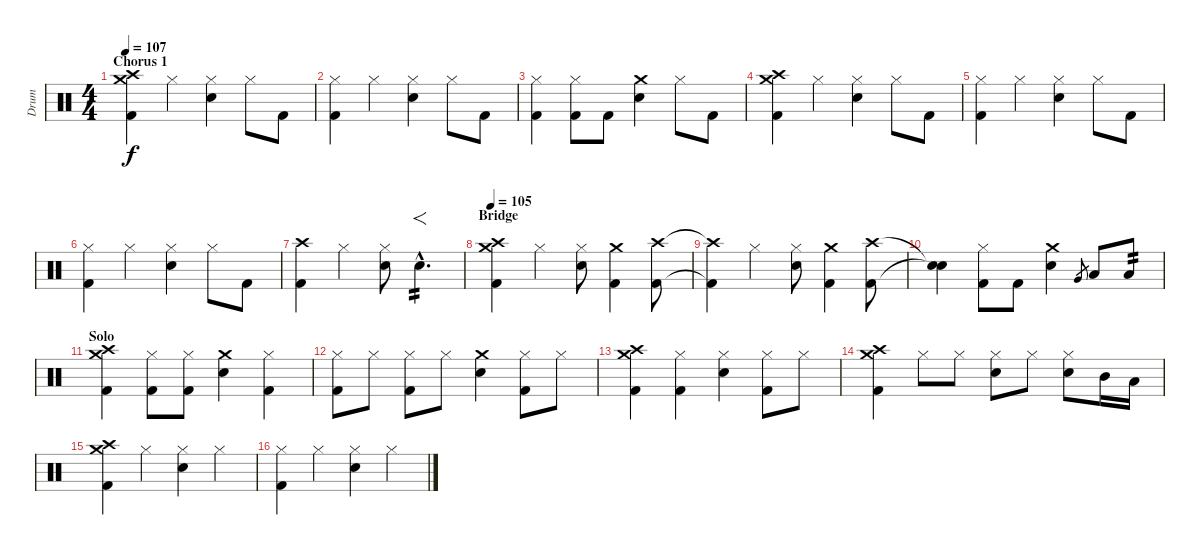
\track ("Drum" "Drum") {instrument percussion}
\staff {score}
\articulation defaults
\ts (4 4)
\section ("" "Chorus 1")
\tempo 107
\clef neutral
\ks c
("Kick (hit) 2" "Crash medium (hit)" "Crash high (hit)").4{dy f} "Hi-Hat (closed)".4 ("Hi-Hat (closed)" "Snare (hit) 2").4 "Hi-Hat (closed)".8 "Kick (hit) 2".8 |
("Hi-Hat (closed)" "Kick (hit) 2").4 "Hi-Hat (closed)".4 ("Hi-Hat (closed)" "Snare (hit) 2").4 "Hi-Hat (closed)".8 "Kick (hit) 2".8 |
("Hi-Hat (closed)" "Kick (hit) 2").4 ("Hi-Hat (closed)" "Kick (hit) 2").8 "Kick (hit) 2".8 ("Snare (hit) 2" "Crash medium (hit)").4 "Hi-Hat (closed)".8 "Kick (hit) 2".8 |
("Kick (hit) 2" "Crash medium (hit)" "Crash high (hit)").4 "Hi-Hat (closed)".4 ("Hi-Hat (closed)" "Snare (hit) 2").4 "Hi-Hat (closed)".8 "Kick (hit) 2".8 |
("Hi-Hat (closed)" "Kick (hit) 2").4 "Hi-Hat (closed)".4 ("Hi-Hat (closed)" "Snare (hit) 2").4 "Hi-Hat (closed)".8 "Kick (hit) 2".8 |
("Hi-Hat (closed)" "Kick (hit) 2").4 "Hi-Hat (closed)".4 ("Hi-Hat (closed)" "Snare (hit) 2").4 "Hi-Hat (closed)".8 "Kick (hit) 2".8 |
("Kick (hit) 2" "Crash high (hit)").4 "Hi-Hat (closed)".4 ("Hi-Hat (closed)" "Snare (hit) 2").8 "Snare (hit) 2"{hac}.4{f d tp 2} |
\section ("" "Bridge")
\tempo 105
("Kick (hit) 2" "Crash medium (hit)" "Crash high (hit)").4 "Hi-Hat (closed)".4 ("Hi-Hat (closed)" "Snare (hit) 2").8 ("Kick (hit) 2" "Crash medium (hit)").4 ("Kick (hit) 2" "Crash high (hit)").8 |
("Kick (hit) 2"{t} "Crash high (hit)"{t}).4 "Hi-Hat (closed)".4 ("Hi-Hat (closed)" "Snare (hit) 2").8 ("Kick (hit) 2" "Crash medium (hit)").4 ("Kick (hit) 2" "Crash high (hit)").8 |
("Snare (hit)"{t} "Snare (hit)"{t}).4 ("Hi-Hat (closed)" "Kick (hit) 2").8 "Kick (hit) 2".8 ("Snare (hit) 2" "Crash medium (hit)").4 "Very Low Tom (hit)".8{gr} "Low Tom (hit)".8 "Low Tom (hit)".8{tp 2} |
\section ("" "Solo")
("Kick (hit) 2" "Crash medium (hit)" "Crash high (hit)").4 ("Hi-Hat (closed)" "Kick (hit) 2").8 ("Hi-Hat (closed)" "Kick (hit) 2").8 ("Snare (hit) 2" "Crash medium (hit)").4 ("Hi-Hat (closed)" "Kick (hit) 2").4 |
("Hi-Hat (closed)" "Kick (hit) 2").8 "Hi-Hat (closed)".8 ("Hi-Hat (closed)" "Kick (hit) 2").8 "Hi-Hat (closed)".8 ("Snare (hit) 2" "Crash medium (hit)").4 ("Hi-Hat (closed)" "Kick (hit) 2").8 "Hi-Hat (closed)".8 |
("Kick (hit) 2" "Crash medium (hit)" "Crash high (hit)").4 ("Hi-Hat (closed)" "Kick (hit) 2").4 ("Hi-Hat (closed)" "Snare (hit) 2").4 ("Hi-Hat (closed)" "Kick (hit) 2").8 "Hi-Hat (closed)".8 |
("Kick (hit) 2" "Crash medium (hit)" "Crash high (hit)").4 "Hi-Hat (closed)".8 "Hi-Hat (closed)".8 ("Hi-Hat (closed)" "Snare (hit) 2").8 "Hi-Hat (closed)".8 ("Hi-Hat (closed)" "Snare (hit) 2").8 "Mid Tom (hit)".16 "Low Tom (hit)".16 |
("Kick (hit) 2" "Crash medium (hit)" "Crash high (hit)").4 "Hi-Hat (closed)".4 ("Hi-Hat (closed)" "Snare (hit) 2").4 "Hi-Hat (closed)".4 |
("Hi-Hat (closed)" "Kick (hit) 2").4 "Hi-Hat (closed)".4 ("Hi-Hat (closed)" "Snare (hit) 2").4 "Hi-Hat (closed)".4
